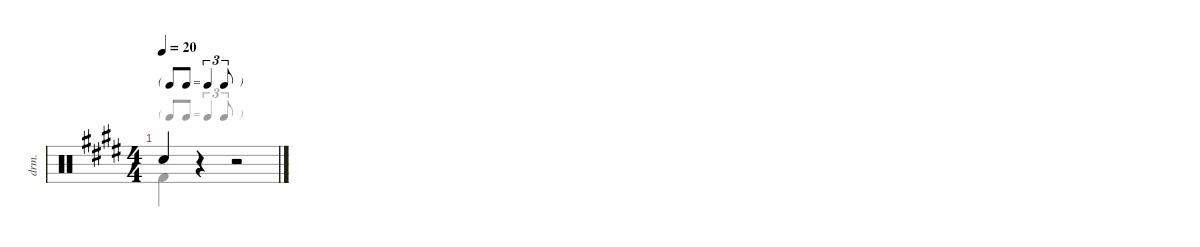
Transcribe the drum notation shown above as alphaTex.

\defaultSystemsLayout 4
\hideDynamics
\bracketExtendMode nobrackets
\otherSystemsTrackNameOrientation horizontal
\track ("Drums" "drm.") {instrument percussion}
\staff {score}
\articulation defaults
\voice
\ts (4 4)
\tf triplet8th
\tempo 20
\clef neutral
\ks e "Snare (hit) 2"{acc forcenatural}.4{dy f beam Up}
r.4{beam Up} r.2{beam Up}
\voice
\clef neutral
\ottava regular
\simile none
\ks e "Kick (hit) 2"{acc forcenatural}.4{dy f beam Down}
r.4{beam Down} r.2{beam Down}
